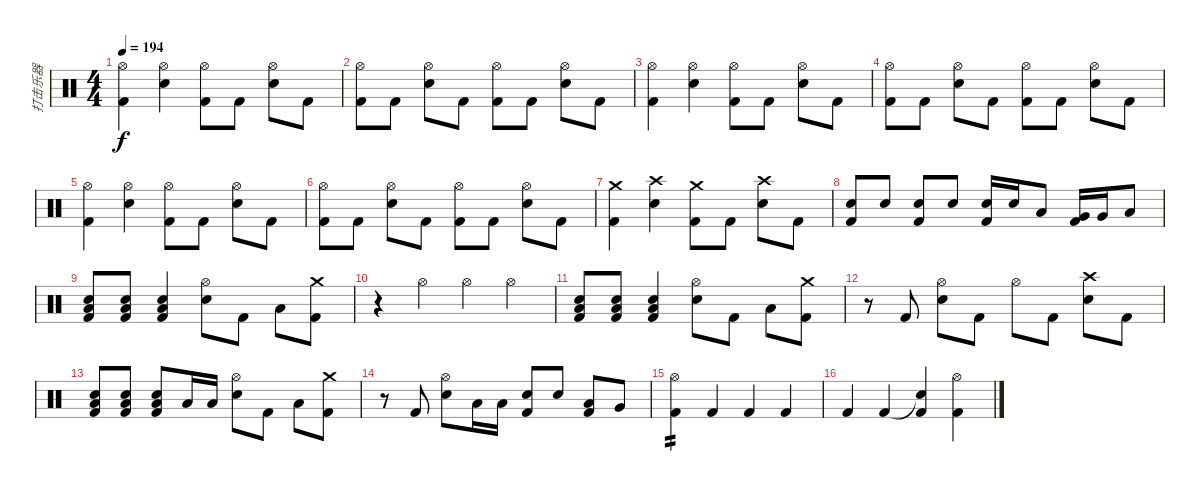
\track ("打击乐器" "打击乐器") {instrument percussion}
\staff {score}
\articulation defaults
\ts (4 4)
\tempo 194
\clef neutral
\ks c
("Hi-Hat (open)" "Kick (hit) 2").4{dy f} ("Hi-Hat (open)" "Electric Snare (hit)").4 ("Hi-Hat (open)" "Kick (hit) 2").8 "Kick (hit) 2".8 ("Hi-Hat (open)" "Electric Snare (hit)").8 "Kick (hit) 2".8 |
("Hi-Hat (open)" "Kick (hit) 2").8 "Kick (hit) 2".8 ("Hi-Hat (open)" "Electric Snare (hit)").8 "Kick (hit) 2".8 ("Hi-Hat (open)" "Kick (hit) 2").8 "Kick (hit) 2".8 ("Hi-Hat (open)" "Electric Snare (hit)").8 "Kick (hit) 2".8 |
("Hi-Hat (open)" "Kick (hit) 2").4 ("Hi-Hat (open)" "Electric Snare (hit)").4 ("Hi-Hat (open)" "Kick (hit) 2").8 "Kick (hit) 2".8 ("Hi-Hat (open)" "Electric Snare (hit)").8 "Kick (hit) 2".8 |
("Hi-Hat (open)" "Kick (hit) 2").8 "Kick (hit) 2".8 ("Hi-Hat (open)" "Electric Snare (hit)").8 "Kick (hit) 2".8 ("Hi-Hat (open)" "Kick (hit) 2").8 "Kick (hit) 2".8 ("Hi-Hat (open)" "Electric Snare (hit)").8 "Kick (hit) 2".8 |
("Hi-Hat (open)" "Kick (hit) 2").4 ("Hi-Hat (open)" "Electric Snare (hit)").4 ("Hi-Hat (open)" "Kick (hit) 2").8 "Kick (hit) 2".8 ("Hi-Hat (open)" "Electric Snare (hit)").8 "Kick (hit) 2".8 |
("Hi-Hat (open)" "Kick (hit) 2").8 "Kick (hit) 2".8 ("Hi-Hat (open)" "Electric Snare (hit)").8 "Kick (hit) 2".8 ("Hi-Hat (open)" "Kick (hit) 2").8 "Kick (hit) 2".8 ("Hi-Hat (open)" "Electric Snare (hit)").8 "Kick (hit) 2".8 |
("Crash medium (hit)" "Kick (hit) 2").4 ("Crash high (hit)" "Electric Snare (hit)").4 ("Crash medium (hit)" "Kick (hit) 2").8 "Kick (hit) 2".8 ("Crash high (hit)" "Electric Snare (hit)").8 "Kick (hit) 2".8 |
("Electric Snare (hit)" "Kick (hit) 2").8 "Electric Snare (hit)".8 ("Electric Snare (hit)" "Kick (hit) 2").8 "Electric Snare (hit)".8 ("Electric Snare (hit)" "Kick (hit) 2").16 "Electric Snare (hit)".16 "Low Tom (hit)".8 ("Very Low Tom (hit)" "Kick (hit) 2").16 "Very Low Tom (hit)".16 "Low Floor Tom (hit)".8 |
("Electric Snare (hit)" "Low Floor Tom (hit)" "Kick (hit) 2").8 ("Electric Snare (hit)" "Low Floor Tom (hit)" "Kick (hit) 2").8 ("Electric Snare (hit)" "Low Floor Tom (hit)" "Kick (hit) 2").4 ("Hi-Hat (open)" "Electric Snare (hit)").8 "Kick (hit) 2".8 "Low Tom (hit)".8 ("Crash medium (hit)" "Kick (hit) 2").8 |
r.4 "Hi-Hat (open)".4 "Hi-Hat (open)".4 "Hi-Hat (open)".4 |
("Electric Snare (hit)" "Low Floor Tom (hit)" "Kick (hit) 2").8 ("Electric Snare (hit)" "Low Floor Tom (hit)" "Kick (hit) 2").8 ("Electric Snare (hit)" "Low Floor Tom (hit)" "Kick (hit) 2").4 ("Hi-Hat (open)" "Electric Snare (hit)").8 "Kick (hit) 2".8 "Low Tom (hit)".8 ("Crash medium (hit)" "Kick (hit) 2").8 |
r.8 "Kick (hit) 2".8 ("Hi-Hat (open)" "Electric Snare (hit)").8 "Kick (hit) 2".8 "Hi-Hat (open)".8 "Kick (hit) 2".8 ("Crash high (hit)" "Electric Snare (hit)").8 "Kick (hit) 2".8 |
("Electric Snare (hit)" "Low Floor Tom (hit)" "Kick (hit) 2").8 ("Electric Snare (hit)" "Low Floor Tom (hit)" "Kick (hit) 2").8 ("Electric Snare (hit)" "Low Floor Tom (hit)" "Kick (hit) 2").8 "Low Tom (hit)".16 "Low Tom (hit)".16 ("Hi-Hat (open)" "Electric Snare (hit)").8 "Kick (hit) 2".8 "Low Tom (hit)".8 ("Crash medium (hit)" "Kick (hit) 2").8 |
r.8 "Kick (hit) 2".8 ("Hi-Hat (open)" "Electric Snare (hit)").8 "Low Tom (hit)".16 "Low Tom (hit)".16 ("Electric Snare (hit)" "Kick (hit) 2").8 "Electric Snare (hit)".8 ("Low Tom (hit)" "Kick (hit) 2").8 "Very Low Tom (hit)".8 |
("Hi-Hat (open)" "Kick (hit) 2").4{tp 2 volume 10} "Kick (hit) 2".4 "Kick (hit) 2".4 "Kick (hit) 2".4 |
"Kick (hit) 2".4{volume 16} "Kick (hit) 2".4 ("Snare (hit)"{t} "Kick (hit) 2").4 ("Hi-Hat (open)" "Kick (hit) 2").4
